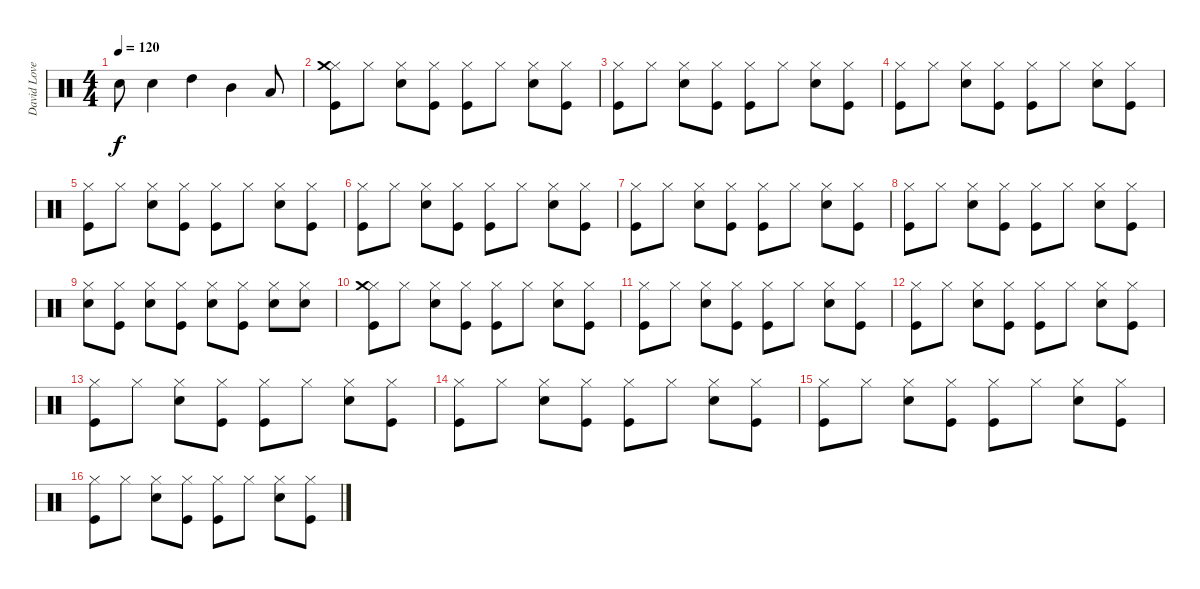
\track ("David Lovering" "David Love") {instrument percussion}
\staff {score}
\articulation defaults
\ts (4 4)
\tempo 120
\clef neutral
\ks c "Snare (hit) 2".8{dy f} "Snare (hit) 2".4 "High Tom (hit)".4 "Mid Tom (hit)".4 "Low Tom (hit)".8
|
("Hi-Hat (closed)" "Crash medium (hit)" "Kick (hit)").8 "Hi-Hat (closed)".8 ("Hi-Hat (closed)" "Snare (hit) 2").8 ("Hi-Hat (closed)" "Kick (hit)").8 ("Hi-Hat (closed)" "Kick (hit)").8 "Hi-Hat (closed)".8 ("Hi-Hat (closed)" "Snare (hit) 2").8 ("Hi-Hat (closed)" "Kick (hit)").8 |
("Hi-Hat (closed)" "Kick (hit)").8 "Hi-Hat (closed)".8 ("Hi-Hat (closed)" "Snare (hit) 2").8 ("Hi-Hat (closed)" "Kick (hit)").8 ("Hi-Hat (closed)" "Kick (hit)").8 "Hi-Hat (closed)".8 ("Hi-Hat (closed)" "Snare (hit) 2").8 ("Hi-Hat (closed)" "Kick (hit)").8 |
("Hi-Hat (closed)" "Kick (hit)").8 "Hi-Hat (closed)".8 ("Hi-Hat (closed)" "Snare (hit) 2").8 ("Hi-Hat (closed)" "Kick (hit)").8 ("Hi-Hat (closed)" "Kick (hit)").8 "Hi-Hat (closed)".8 ("Hi-Hat (closed)" "Snare (hit) 2").8 ("Hi-Hat (closed)" "Kick (hit)").8 |
("Hi-Hat (closed)" "Kick (hit)").8 "Hi-Hat (closed)".8 ("Hi-Hat (closed)" "Snare (hit) 2").8 ("Hi-Hat (closed)" "Kick (hit)").8 ("Hi-Hat (closed)" "Kick (hit)").8 "Hi-Hat (closed)".8 ("Hi-Hat (closed)" "Snare (hit) 2").8 ("Hi-Hat (closed)" "Kick (hit)").8 |
("Hi-Hat (closed)" "Kick (hit)").8 "Hi-Hat (closed)".8 ("Hi-Hat (closed)" "Snare (hit) 2").8 ("Hi-Hat (closed)" "Kick (hit)").8 ("Hi-Hat (closed)" "Kick (hit)").8 "Hi-Hat (closed)".8 ("Hi-Hat (closed)" "Snare (hit) 2").8 ("Hi-Hat (closed)" "Kick (hit)").8 |
("Hi-Hat (closed)" "Kick (hit)").8 "Hi-Hat (closed)".8 ("Hi-Hat (closed)" "Snare (hit) 2").8 ("Hi-Hat (closed)" "Kick (hit)").8 ("Hi-Hat (closed)" "Kick (hit)").8 "Hi-Hat (closed)".8 ("Hi-Hat (closed)" "Snare (hit) 2").8 ("Hi-Hat (closed)" "Kick (hit)").8 |
("Hi-Hat (closed)" "Kick (hit)").8 "Hi-Hat (closed)".8 ("Hi-Hat (closed)" "Snare (hit) 2").8 ("Hi-Hat (closed)" "Kick (hit)").8 ("Hi-Hat (closed)" "Kick (hit)").8 "Hi-Hat (closed)".8 ("Hi-Hat (closed)" "Snare (hit) 2").8 ("Hi-Hat (closed)" "Kick (hit)").8 |
\section ("" "")
("Hi-Hat (closed)" "Snare (hit) 2").8 ("Hi-Hat (closed)" "Kick (hit)").8 ("Hi-Hat (closed)" "Snare (hit) 2").8 ("Hi-Hat (closed)" "Kick (hit)").8 ("Hi-Hat (closed)" "Snare (hit) 2").8 ("Hi-Hat (closed)" "Kick (hit)").8 ("Hi-Hat (closed)" "Snare (hit) 2").8 ("Hi-Hat (closed)" "Snare (hit) 2").8 |
("Hi-Hat (closed)" "Crash medium (hit)" "Kick (hit)").8 "Hi-Hat (closed)".8 ("Hi-Hat (closed)" "Snare (hit) 2").8 ("Hi-Hat (closed)" "Kick (hit)").8 ("Hi-Hat (closed)" "Kick (hit)").8 "Hi-Hat (closed)".8 ("Hi-Hat (closed)" "Snare (hit) 2").8 ("Hi-Hat (closed)" "Kick (hit)").8 |
("Hi-Hat (closed)" "Kick (hit)").8 "Hi-Hat (closed)".8 ("Hi-Hat (closed)" "Snare (hit) 2").8 ("Hi-Hat (closed)" "Kick (hit)").8 ("Hi-Hat (closed)" "Kick (hit)").8 "Hi-Hat (closed)".8 ("Hi-Hat (closed)" "Snare (hit) 2").8 ("Hi-Hat (closed)" "Kick (hit)").8 |
("Hi-Hat (closed)" "Kick (hit)").8 "Hi-Hat (closed)".8 ("Hi-Hat (closed)" "Snare (hit) 2").8 ("Hi-Hat (closed)" "Kick (hit)").8 ("Hi-Hat (closed)" "Kick (hit)").8 "Hi-Hat (closed)".8 ("Hi-Hat (closed)" "Snare (hit) 2").8 ("Hi-Hat (closed)" "Kick (hit)").8 |
("Hi-Hat (closed)" "Kick (hit)").8 "Hi-Hat (closed)".8 ("Hi-Hat (closed)" "Snare (hit) 2").8 ("Hi-Hat (closed)" "Kick (hit)").8 ("Hi-Hat (closed)" "Kick (hit)").8 "Hi-Hat (closed)".8 ("Hi-Hat (closed)" "Snare (hit) 2").8 ("Hi-Hat (closed)" "Kick (hit)").8 |
("Hi-Hat (closed)" "Kick (hit)").8 "Hi-Hat (closed)".8 ("Hi-Hat (closed)" "Snare (hit) 2").8 ("Hi-Hat (closed)" "Kick (hit)").8 ("Hi-Hat (closed)" "Kick (hit)").8 "Hi-Hat (closed)".8 ("Hi-Hat (closed)" "Snare (hit) 2").8 ("Hi-Hat (closed)" "Kick (hit)").8 |
("Hi-Hat (closed)" "Kick (hit)").8 "Hi-Hat (closed)".8 ("Hi-Hat (closed)" "Snare (hit) 2").8 ("Hi-Hat (closed)" "Kick (hit)").8 ("Hi-Hat (closed)" "Kick (hit)").8 "Hi-Hat (closed)".8 ("Hi-Hat (closed)" "Snare (hit) 2").8 ("Hi-Hat (closed)" "Kick (hit)").8 |
("Hi-Hat (closed)" "Kick (hit)").8 "Hi-Hat (closed)".8 ("Hi-Hat (closed)" "Snare (hit) 2").8 ("Hi-Hat (closed)" "Kick (hit)").8 ("Hi-Hat (closed)" "Kick (hit)").8 "Hi-Hat (closed)".8 ("Hi-Hat (closed)" "Snare (hit) 2").8 ("Hi-Hat (closed)" "Kick (hit)").8
